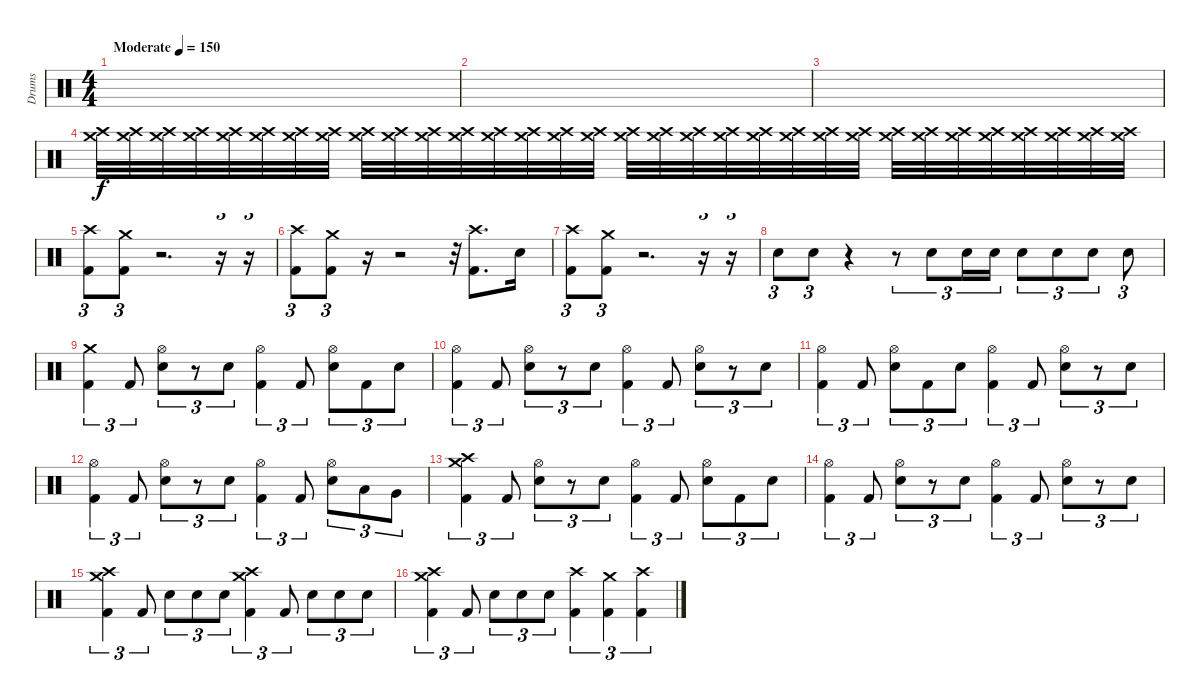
\track ("Drums" "Drums") {instrument percussion}
\staff {score}
\articulation defaults
\ts (4 4)
\tempo (150 "Moderate")
\clef neutral
\ks c
|
|
|
("Crash high (hit)" "Crash medium (hit)").32 ("Crash high (hit)" "Crash medium (hit)").32 ("Crash high (hit)" "Crash medium (hit)").32 ("Crash high (hit)" "Crash medium (hit)").32 ("Crash high (hit)" "Crash medium (hit)").32 ("Crash high (hit)" "Crash medium (hit)").32 ("Crash high (hit)" "Crash medium (hit)").32 ("Crash high (hit)" "Crash medium (hit)").32 ("Crash high (hit)" "Crash medium (hit)").32 ("Crash high (hit)" "Crash medium (hit)").32 ("Crash high (hit)" "Crash medium (hit)").32 ("Crash high (hit)" "Crash medium (hit)").32 ("Crash high (hit)" "Crash medium (hit)").32 ("Crash high (hit)" "Crash medium (hit)").32 ("Crash high (hit)" "Crash medium (hit)").32 ("Crash high (hit)" "Crash medium (hit)").32 ("Crash high (hit)" "Crash medium (hit)").32 ("Crash high (hit)" "Crash medium (hit)").32 ("Crash high (hit)" "Crash medium (hit)").32 ("Crash high (hit)" "Crash medium (hit)").32 ("Crash high (hit)" "Crash medium (hit)").32 ("Crash high (hit)" "Crash medium (hit)").32 ("Crash high (hit)" "Crash medium (hit)").32 ("Crash high (hit)" "Crash medium (hit)").32 ("Crash high (hit)" "Crash medium (hit)").32 ("Crash high (hit)" "Crash medium (hit)").32 ("Crash high (hit)" "Crash medium (hit)").32 ("Crash high (hit)" "Crash medium (hit)").32 ("Crash high (hit)" "Crash medium (hit)").32 ("Crash high (hit)" "Crash medium (hit)").32 ("Crash high (hit)" "Crash medium (hit)").32 ("Crash high (hit)" "Crash medium (hit)").32 |
("Crash high (hit)" "Kick (hit) 2").8{tu (3 2)} ("Crash medium (hit)" "Kick (hit) 2").8{tu (3 2)} r.2{d} r.16{tu (3 2)} r.16{tu (3 2)} |
("Crash high (hit)" "Kick (hit) 2").8{tu (3 2)} ("Crash medium (hit)" "Kick (hit) 2").8{tu (3 2)} r.16 r.2 r.32{tu (3 2)} ("Crash high (hit)" "Kick (hit) 2").8{d} "Electric Snare (hit)".16 |
("Crash high (hit)" "Kick (hit) 2").8{tu (3 2)} ("Crash medium (hit)" "Kick (hit) 2").8{tu (3 2)} r.2{d} r.16{tu (3 2)} r.16{tu (3 2)} |
"Electric Snare (hit)".8{tu (3 2)} "Electric Snare (hit)".8{tu (3 2)} r.4 r.8{tu (3 2)} "Electric Snare (hit)".8{tu (3 2)} "Electric Snare (hit)".16{tu (3 2)} "Electric Snare (hit)".16{tu (3 2)} "Electric Snare (hit)".8{tu (3 2)} "Electric Snare (hit)".8{tu (3 2)} "Electric Snare (hit)".8{tu (3 2)} "Electric Snare (hit)".8{tu (3 2)} |
("Crash medium (hit)" "Kick (hit) 2").4{tu (3 2)} "Kick (hit) 2".8{tu (3 2)} ("Hi-Hat (open)" "Electric Snare (hit)").8{tu (3 2)} r.8{tu (3 2)} "Electric Snare (hit)".8{tu (3 2)} ("Hi-Hat (open)" "Kick (hit) 2").4{tu (3 2)} "Kick (hit) 2".8{tu (3 2)} ("Hi-Hat (open)" "Electric Snare (hit)").8{tu (3 2)} "Kick (hit) 2".8{tu (3 2)} "Electric Snare (hit)".8{tu (3 2)} |
("Hi-Hat (open)" "Kick (hit) 2").4{tu (3 2)} "Kick (hit) 2".8{tu (3 2)} ("Hi-Hat (open)" "Electric Snare (hit)").8{tu (3 2)} r.8{tu (3 2)} "Electric Snare (hit)".8{tu (3 2)} ("Hi-Hat (open)" "Kick (hit) 2").4{tu (3 2)} "Kick (hit) 2".8{tu (3 2)} ("Hi-Hat (open)" "Electric Snare (hit)").8{tu (3 2)} r.8{tu (3 2)} "Electric Snare (hit)".8{tu (3 2)} |
("Hi-Hat (open)" "Kick (hit) 2").4{tu (3 2)} "Kick (hit) 2".8{tu (3 2)} ("Hi-Hat (open)" "Electric Snare (hit)").8{tu (3 2)} "Kick (hit) 2".8{tu (3 2)} "Electric Snare (hit)".8{tu (3 2)} ("Hi-Hat (open)" "Kick (hit) 2").4{tu (3 2)} "Kick (hit) 2".8{tu (3 2)} ("Hi-Hat (open)" "Electric Snare (hit)").8{tu (3 2)} r.8{tu (3 2)} "Electric Snare (hit)".8{tu (3 2)} |
("Hi-Hat (open)" "Kick (hit) 2").4{tu (3 2)} "Kick (hit) 2".8{tu (3 2)} ("Hi-Hat (open)" "Electric Snare (hit)").8{tu (3 2)} r.8{tu (3 2)} "Electric Snare (hit)".8{tu (3 2)} ("Hi-Hat (open)" "Kick (hit) 2").4{tu (3 2)} "Kick (hit) 2".8{tu (3 2)} ("Hi-Hat (open)" "Electric Snare (hit)").8{tu (3 2)} "Low Tom (hit)".8{tu (3 2)} "Very Low Tom (hit)".8{tu (3 2)} |
("Crash medium (hit)" "Crash high (hit)" "Kick (hit) 2").4{tu (3 2)} "Kick (hit) 2".8{tu (3 2)} ("Hi-Hat (open)" "Electric Snare (hit)").8{tu (3 2)} r.8{tu (3 2)} "Electric Snare (hit)".8{tu (3 2)} ("Hi-Hat (open)" "Kick (hit) 2").4{tu (3 2)} "Kick (hit) 2".8{tu (3 2)} ("Hi-Hat (open)" "Electric Snare (hit)").8{tu (3 2)} "Kick (hit) 2".8{tu (3 2)} "Electric Snare (hit)".8{tu (3 2)} |
("Hi-Hat (open)" "Kick (hit) 2").4{tu (3 2)} "Kick (hit) 2".8{tu (3 2)} ("Hi-Hat (open)" "Electric Snare (hit)").8{tu (3 2)} r.8{tu (3 2)} "Electric Snare (hit)".8{tu (3 2)} ("Hi-Hat (open)" "Kick (hit) 2").4{tu (3 2)} "Kick (hit) 2".8{tu (3 2)} ("Hi-Hat (open)" "Electric Snare (hit)").8{tu (3 2)} r.8{tu (3 2)} "Electric Snare (hit)".8{tu (3 2)} |
("Crash medium (hit)" "Crash high (hit)" "Kick (hit) 2").4{tu (3 2)} "Kick (hit) 2".8{tu (3 2)} "Electric Snare (hit)".8{tu (3 2)} "Electric Snare (hit)".8{tu (3 2)} "Electric Snare (hit)".8{tu (3 2)} ("Crash medium (hit)" "Crash high (hit)" "Kick (hit) 2").4{tu (3 2)} "Kick (hit) 2".8{tu (3 2)} "Electric Snare (hit)".8{tu (3 2)} "Electric Snare (hit)".8{tu (3 2)} "Electric Snare (hit)".8{tu (3 2)} |
("Crash medium (hit)" "Crash high (hit)" "Kick (hit) 2").4{tu (3 2)} "Kick (hit) 2".8{tu (3 2)} "Electric Snare (hit)".8{tu (3 2)} "Electric Snare (hit)".8{tu (3 2)} "Electric Snare (hit)".8{tu (3 2)} ("Crash high (hit)" "Kick (hit) 2").4{tu (3 2)} ("Crash medium (hit)" "Kick (hit) 2").4{tu (3 2)} ("Crash high (hit)" "Kick (hit) 2").4{tu (3 2)}
